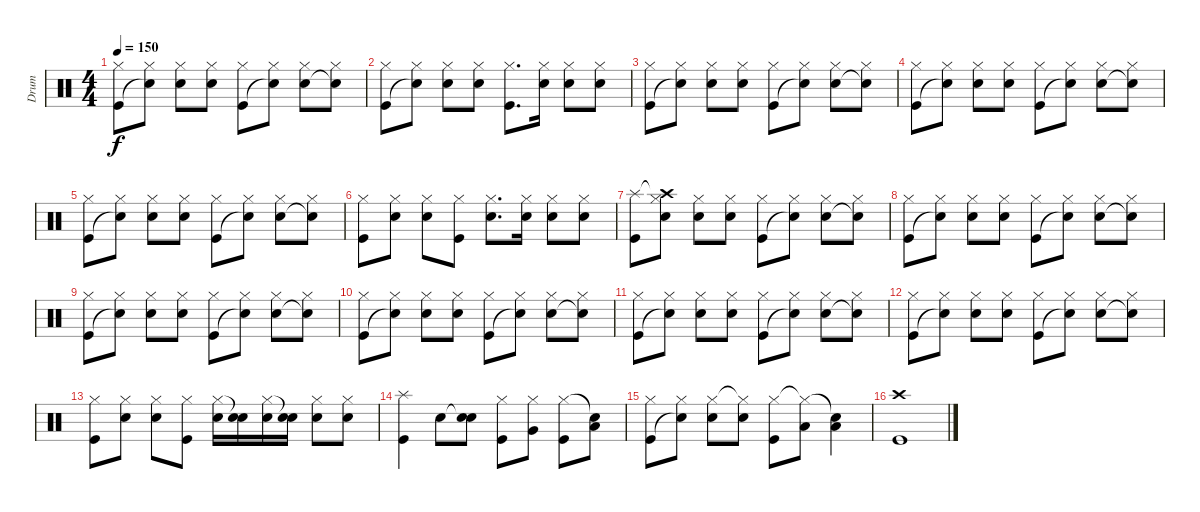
\track ("Drum" "Drum") {instrument percussion}
\staff {score}
\articulation defaults
\ts (4 4)
\tempo 150
\clef neutral
\ks c
("Hi-Hat (closed)" "Kick (hit)").8{dy f} ("Hi-Hat (closed)" "Snare (hit)"{t}).8 ("Hi-Hat (closed)" "Snare (hit) 2").8 ("Hi-Hat (closed)" "Snare (hit) 2").8 ("Hi-Hat (closed)" "Kick (hit)").8 ("Hi-Hat (closed)" "Snare (hit)"{t}).8 ("Hi-Hat (closed)" "Snare (hit) 2").8 ("Hi-Hat (closed)" "Snare (hit)"{t}).8 |
("Hi-Hat (closed)" "Kick (hit)").8 ("Hi-Hat (closed)" "Snare (hit)"{t}).8 ("Hi-Hat (closed)" "Snare (hit) 2").8 ("Hi-Hat (closed)" "Snare (hit) 2").8 ("Hi-Hat (closed)" "Kick (hit)").8{d} ("Hi-Hat (closed)" "Snare (hit) 2").16 ("Hi-Hat (closed)" "Snare (hit) 2").8 ("Hi-Hat (closed)" "Snare (hit) 2").8 |
("Hi-Hat (closed)" "Kick (hit)").8 ("Hi-Hat (closed)" "Snare (hit)"{t}).8 ("Hi-Hat (closed)" "Snare (hit) 2").8 ("Hi-Hat (closed)" "Snare (hit) 2").8 ("Hi-Hat (closed)" "Kick (hit)").8 ("Hi-Hat (closed)" "Snare (hit)"{t}).8 ("Hi-Hat (closed)" "Snare (hit) 2").8 ("Hi-Hat (closed)" "Snare (hit)"{t}).8 |
("Hi-Hat (closed)" "Kick (hit)").8 ("Hi-Hat (closed)" "Snare (hit)"{t}).8 ("Hi-Hat (closed)" "Snare (hit) 2").8 ("Hi-Hat (closed)" "Snare (hit) 2").8 ("Hi-Hat (closed)" "Kick (hit)").8 ("Hi-Hat (closed)" "Snare (hit)"{t}).8 ("Hi-Hat (closed)" "Snare (hit) 2").8 ("Hi-Hat (closed)" "Snare (hit)"{t}).8 |
("Hi-Hat (closed)" "Kick (hit)").8 ("Hi-Hat (closed)" "Snare (hit)"{t}).8 ("Hi-Hat (closed)" "Snare (hit) 2").8 ("Hi-Hat (closed)" "Snare (hit) 2").8 ("Hi-Hat (closed)" "Kick (hit)").8 ("Hi-Hat (closed)" "Snare (hit)"{t}).8 ("Hi-Hat (closed)" "Snare (hit) 2").8 ("Hi-Hat (closed)" "Snare (hit)"{t}).8 |
("Hi-Hat (closed)" "Kick (hit)").8 ("Hi-Hat (closed)" "Snare (hit) 2").8 ("Hi-Hat (closed)" "Snare (hit) 2").8 ("Hi-Hat (closed)" "Kick (hit)").8 ("Hi-Hat (closed)" "Snare (hit) 2").8{d} ("Hi-Hat (closed)" "Snare (hit) 2").16 ("Hi-Hat (closed)" "Snare (hit) 2").8 ("Hi-Hat (closed)" "Snare (hit) 2").8 |
("Splash (hit)" "Kick (hit)").8 ("Crash high (hit)"{t} "Hi-Hat (closed)" "Snare (hit)").8 ("Hi-Hat (closed)" "Snare (hit) 2").8 ("Hi-Hat (closed)" "Snare (hit) 2").8 ("Hi-Hat (closed)" "Kick (hit)").8 ("Hi-Hat (closed)" "Snare (hit)"{t}).8 ("Hi-Hat (closed)" "Snare (hit) 2").8 ("Hi-Hat (closed)" "Snare (hit)"{t}).8 |
("Hi-Hat (closed)" "Kick (hit)").8 ("Hi-Hat (closed)" "Snare (hit)"{t}).8 ("Hi-Hat (closed)" "Snare (hit) 2").8 ("Hi-Hat (closed)" "Snare (hit) 2").8 ("Hi-Hat (closed)" "Kick (hit)").8 ("Hi-Hat (closed)" "Snare (hit)"{t}).8 ("Hi-Hat (closed)" "Snare (hit) 2").8 ("Hi-Hat (closed)" "Snare (hit)"{t}).8 |
("Hi-Hat (closed)" "Kick (hit)").8 ("Hi-Hat (closed)" "Snare (hit)"{t}).8 ("Hi-Hat (closed)" "Snare (hit) 2").8 ("Hi-Hat (closed)" "Snare (hit) 2").8 ("Hi-Hat (closed)" "Kick (hit)").8 ("Hi-Hat (closed)" "Snare (hit)"{t}).8 ("Hi-Hat (closed)" "Snare (hit) 2").8 ("Hi-Hat (closed)" "Snare (hit)"{t}).8 |
("Hi-Hat (closed)" "Kick (hit)").8 ("Hi-Hat (closed)" "Snare (hit)"{t}).8 ("Hi-Hat (closed)" "Snare (hit) 2").8 ("Hi-Hat (closed)" "Snare (hit) 2").8 ("Hi-Hat (closed)" "Kick (hit)").8 ("Hi-Hat (closed)" "Snare (hit)"{t}).8 ("Hi-Hat (closed)" "Snare (hit) 2").8 ("Hi-Hat (closed)" "Snare (hit)"{t}).8 |
("Hi-Hat (closed)" "Kick (hit)").8 ("Hi-Hat (closed)" "Snare (hit)"{t}).8 ("Hi-Hat (closed)" "Snare (hit) 2").8 ("Hi-Hat (closed)" "Snare (hit) 2").8 ("Hi-Hat (closed)" "Kick (hit)").8 ("Hi-Hat (closed)" "Snare (hit)"{t}).8 ("Hi-Hat (closed)" "Snare (hit) 2").8 ("Hi-Hat (closed)" "Snare (hit)"{t}).8 |
("Hi-Hat (closed)" "Kick (hit)").8 ("Hi-Hat (closed)" "Snare (hit)"{t}).8 ("Hi-Hat (closed)" "Snare (hit) 2").8 ("Hi-Hat (closed)" "Snare (hit) 2").8 ("Hi-Hat (closed)" "Kick (hit)").8 ("Hi-Hat (closed)" "Snare (hit)"{t}).8 ("Hi-Hat (closed)" "Snare (hit) 2").8 ("Hi-Hat (closed)" "Snare (hit)"{t}).8 |
("Hi-Hat (closed)" "Kick (hit)").8 ("Hi-Hat (closed)" "Snare (hit) 2").8 ("Hi-Hat (closed)" "Snare (hit) 2").8 ("Hi-Hat (closed)" "Kick (hit)").8 ("Hi-Hat (closed)" "Snare (hit) 2").16 ("Snare (hit)"{t} "Snare (hit) 2").16 ("Hi-Hat (closed)" "Snare (hit) 2").16 ("Snare (hit)"{t} "Snare (hit) 2").16 ("Hi-Hat (closed)" "Snare (hit) 2").8 ("Hi-Hat (closed)" "Snare (hit) 2").8 |
("Splash (hit)" "Kick (hit)").4 "Snare (hit) 2".8 ("Snare (hit)"{t} "Snare (hit) 2").8 ("Hi-Hat (closed)" "Kick (hit)").8 ("Hi-Hat (closed)" "Very Low Tom (hit)").8 ("Hi-Hat (closed)" "Kick (hit)").8 ("Snare (hit)"{t} "Low Floor Tom (hit)").8 |
("Hi-Hat (closed)" "Kick (hit)").8 ("Hi-Hat (closed)" "Snare (hit)"{t}).8 ("Hi-Hat (closed)" "Snare (hit) 2").8 ("Hi-Hat (closed)"{t} "Snare (hit) 2").8 ("Hi-Hat (closed)" "Kick (hit)").8 ("Hi-Hat (closed)"{t} "Low Floor Tom (hit)").8 ("Snare (hit)"{t} "Low Floor Tom (hit)").4 |
("Crash high (hit)" "Kick (hit)").1
